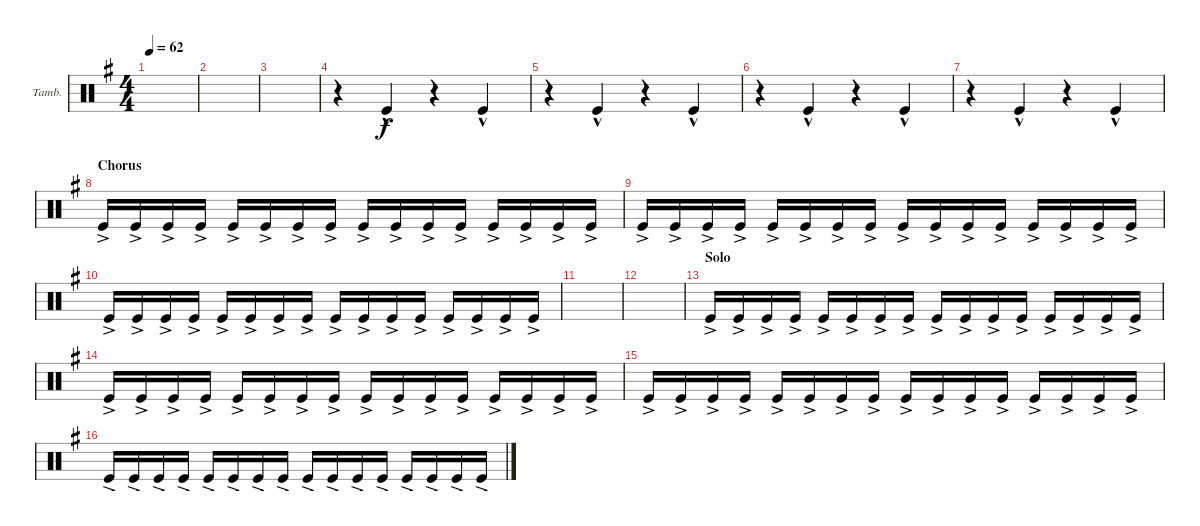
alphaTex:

\defaultSystemsLayout 4
\bracketExtendMode groupsimilarinstruments
\firstSystemTrackNameOrientation horizontal
\otherSystemsTrackNameOrientation horizontal
\track ("Tambourine" "Tamb.") {instrument percussion}
\staff {score}
\articulation defaults
\ts (4 4)
\tempo 62
\clef neutral
\ks g
|
|
|
r.4 "Kick (hit)"{hac}.4 r.4 "Kick (hit)"{hac}.4 |
r.4 "Kick (hit)"{hac}.4 r.4 "Kick (hit)"{hac}.4 |
r.4 "Kick (hit)"{hac}.4 r.4 "Kick (hit)"{hac}.4 |
r.4 "Kick (hit)"{hac}.4 r.4 "Kick (hit)"{hac}.4 |
\section ("" "Chorus")
"Kick (hit)"{ac}.16{dy f} "Kick (hit)"{ac}.16 "Kick (hit)"{ac}.16 "Kick (hit)"{ac}.16 "Kick (hit)"{ac}.16 "Kick (hit)"{ac}.16 "Kick (hit)"{ac}.16 "Kick (hit)"{ac}.16 "Kick (hit)"{ac}.16 "Kick (hit)"{ac}.16 "Kick (hit)"{ac}.16 "Kick (hit)"{ac}.16 "Kick (hit)"{ac}.16 "Kick (hit)"{ac}.16 "Kick (hit)"{ac}.16 "Kick (hit)"{ac}.16 |
"Kick (hit)"{ac}.16 "Kick (hit)"{ac}.16 "Kick (hit)"{ac}.16 "Kick (hit)"{ac}.16 "Kick (hit)"{ac}.16 "Kick (hit)"{ac}.16 "Kick (hit)"{ac}.16 "Kick (hit)"{ac}.16 "Kick (hit)"{ac}.16 "Kick (hit)"{ac}.16 "Kick (hit)"{ac}.16 "Kick (hit)"{ac}.16 "Kick (hit)"{ac}.16 "Kick (hit)"{ac}.16 "Kick (hit)"{ac}.16 "Kick (hit)"{ac}.16 |
"Kick (hit)"{ac}.16 "Kick (hit)"{ac}.16 "Kick (hit)"{ac}.16 "Kick (hit)"{ac}.16 "Kick (hit)"{ac}.16 "Kick (hit)"{ac}.16 "Kick (hit)"{ac}.16 "Kick (hit)"{ac}.16 "Kick (hit)"{ac}.16 "Kick (hit)"{ac}.16 "Kick (hit)"{ac}.16 "Kick (hit)"{ac}.16 "Kick (hit)"{ac}.16 "Kick (hit)"{ac}.16 "Kick (hit)"{ac}.16 "Kick (hit)"{ac}.16 |
|
|
\section ("" "Solo")
"Kick (hit)"{ac}.16 "Kick (hit)"{ac}.16 "Kick (hit)"{ac}.16 "Kick (hit)"{ac}.16 "Kick (hit)"{ac}.16 "Kick (hit)"{ac}.16 "Kick (hit)"{ac}.16 "Kick (hit)"{ac}.16 "Kick (hit)"{ac}.16 "Kick (hit)"{ac}.16 "Kick (hit)"{ac}.16 "Kick (hit)"{ac}.16 "Kick (hit)"{ac}.16 "Kick (hit)"{ac}.16 "Kick (hit)"{ac}.16 "Kick (hit)"{ac}.16 |
"Kick (hit)"{ac}.16 "Kick (hit)"{ac}.16 "Kick (hit)"{ac}.16 "Kick (hit)"{ac}.16 "Kick (hit)"{ac}.16 "Kick (hit)"{ac}.16 "Kick (hit)"{ac}.16 "Kick (hit)"{ac}.16 "Kick (hit)"{ac}.16 "Kick (hit)"{ac}.16 "Kick (hit)"{ac}.16 "Kick (hit)"{ac}.16 "Kick (hit)"{ac}.16 "Kick (hit)"{ac}.16 "Kick (hit)"{ac}.16 "Kick (hit)"{ac}.16 |
"Kick (hit)"{ac}.16 "Kick (hit)"{ac}.16 "Kick (hit)"{ac}.16 "Kick (hit)"{ac}.16 "Kick (hit)"{ac}.16 "Kick (hit)"{ac}.16 "Kick (hit)"{ac}.16 "Kick (hit)"{ac}.16 "Kick (hit)"{ac}.16 "Kick (hit)"{ac}.16 "Kick (hit)"{ac}.16 "Kick (hit)"{ac}.16 "Kick (hit)"{ac}.16 "Kick (hit)"{ac}.16 "Kick (hit)"{ac}.16 "Kick (hit)"{ac}.16 |
"Kick (hit)"{ac}.16 "Kick (hit)"{ac}.16 "Kick (hit)"{ac}.16 "Kick (hit)"{ac}.16 "Kick (hit)"{ac}.16 "Kick (hit)"{ac}.16 "Kick (hit)"{ac}.16 "Kick (hit)"{ac}.16 "Kick (hit)"{ac}.16 "Kick (hit)"{ac}.16 "Kick (hit)"{ac}.16 "Kick (hit)"{ac}.16 "Kick (hit)"{ac}.16 "Kick (hit)"{ac}.16 "Kick (hit)"{ac}.16 "Kick (hit)"{ac}.16
